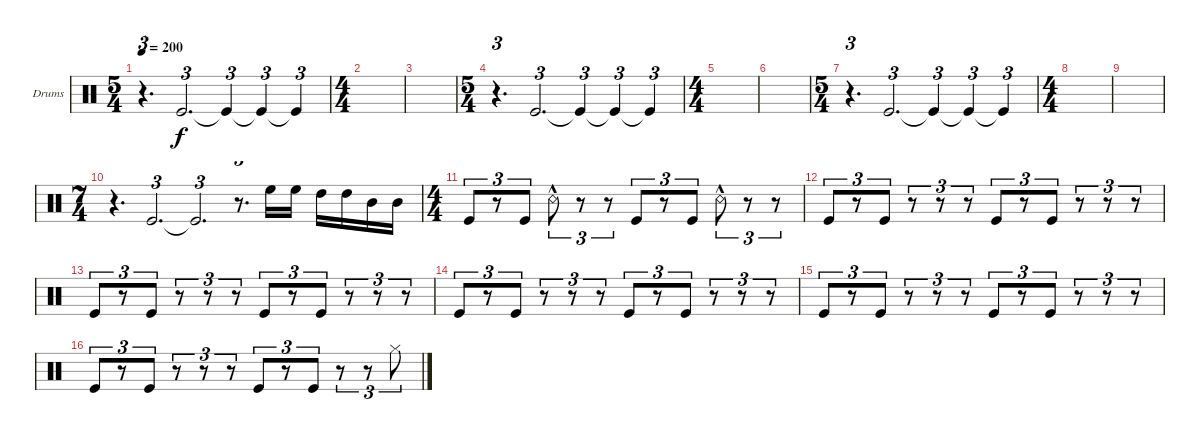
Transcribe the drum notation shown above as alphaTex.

\bracketExtendMode groupsimilarinstruments
\firstSystemTrackNameOrientation horizontal
\otherSystemsTrackNameOrientation horizontal
\track ("Drumkit" "Drums") {instrument percussion}
\staff {score}
\articulation defaults
\ts (5 4)
\tempo 200
\clef neutral
\scale
0.333333
\ks c
r.4{d tu (3 2) dy f} "Kick (hit)".2{d tu (3 2)} "Kick (hit)"{t}.4{tu (3 2)} "Kick (hit)"{t}.4{tu (3 2)} "Kick (hit)"{t}.4{tu (3 2)} |
\ts (4 4)
|
\scale
0.333333 |
\ts (5 4)
\scale
0.333333 r.4{d tu (3 2)} "Kick (hit)".2{d tu (3 2)} "Kick (hit)"{t}.4{tu (3 2)} "Kick (hit)"{t}.4{tu (3 2)} "Kick (hit)"{t}.4{tu (3 2)} |
\ts (4 4)
|
\scale
0.333333 |
\ts (5 4)
\scale
0.333333 r.4{d tu (3 2)} "Kick (hit)".2{d tu (3 2)} "Kick (hit)"{t}.4{tu (3 2)} "Kick (hit)"{t}.4{tu (3 2)} "Kick (hit)"{t}.4{tu (3 2)} |
\ts (4 4)
|
\scale
0.333333 |
\ts (7 4)
\scale
0.391473 r.4{d tu (3 2)} "Kick (hit)".2{d tu (3 2)} "Kick (hit)"{t}.2{d tu (3 2)} r.8{d tu (3 2)} "High Floor Tom (hit)".16 "High Floor Tom (hit)".16 "High Tom (hit)".16 "High Tom (hit)".16 "Mid Tom (hit)".16 "Mid Tom (hit)".16 |
\ts (4 4)
\scale
0.391473 "Kick (hit)".8{tu (3 2)} r.8{tu (3 2)} "Kick (hit)".8{tu (3 2)} "Snare (rim shot)"{hac}.8{tu (3 2)} r.8{tu (3 2)} r.8{tu (3 2)} "Kick (hit)".8{tu (3 2)} r.8{tu (3 2)} "Kick (hit)".8{tu (3 2)} "Snare (rim shot)"{hac}.8{tu (3 2)} r.8{tu (3 2)} r.8{tu (3 2)} |
\scale
0.217054 "Kick (hit)".8{tu (3 2)} r.8{tu (3 2)} "Kick (hit)".8{tu (3 2)} r.8{tu (3 2)} r.8{tu (3 2)} r.8{tu (3 2)} "Kick (hit)".8{tu (3 2)} r.8{tu (3 2)} "Kick (hit)".8{tu (3 2)} r.8{tu (3 2)} r.8{tu (3 2)} r.8{tu (3 2)} |
\scale
0.333333 "Kick (hit)".8{tu (3 2)} r.8{tu (3 2)} "Kick (hit)".8{tu (3 2)} r.8{tu (3 2)} r.8{tu (3 2)} r.8{tu (3 2)} "Kick (hit)".8{tu (3 2)} r.8{tu (3 2)} "Kick (hit)".8{tu (3 2)} r.8{tu (3 2)} r.8{tu (3 2)} r.8{tu (3 2)} |
\scale
0.333333 "Kick (hit)".8{tu (3 2)} r.8{tu (3 2)} "Kick (hit)".8{tu (3 2)} r.8{tu (3 2)} r.8{tu (3 2)} r.8{tu (3 2)} "Kick (hit)".8{tu (3 2)} r.8{tu (3 2)} "Kick (hit)".8{tu (3 2)} r.8{tu (3 2)} r.8{tu (3 2)} r.8{tu (3 2)} |
\scale
0.333333 "Kick (hit)".8{tu (3 2)} r.8{tu (3 2)} "Kick (hit)".8{tu (3 2)} r.8{tu (3 2)} r.8{tu (3 2)} r.8{tu (3 2)} "Kick (hit)".8{tu (3 2)} r.8{tu (3 2)} "Kick (hit)".8{tu (3 2)} r.8{tu (3 2)} r.8{tu (3 2)} r.8{tu (3 2)} |
\scale
0.333333 "Kick (hit)".8{tu (3 2)} r.8{tu (3 2)} "Kick (hit)".8{tu (3 2)} r.8{tu (3 2)} r.8{tu (3 2)} r.8{tu (3 2)} "Kick (hit)".8{tu (3 2)} r.8{tu (3 2)} "Kick (hit)".8{tu (3 2)} r.8{tu (3 2)} r.8{tu (3 2)} "Hi-Hat (closed)".8{tu (3 2)}
